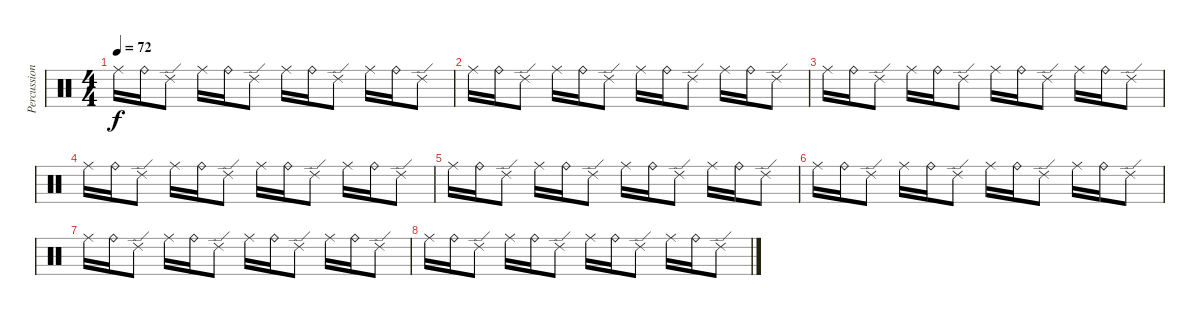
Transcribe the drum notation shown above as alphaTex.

\track ("Percussions" "Percussion") {instrument percussion}
\staff {score}
\articulation defaults
\ts (4 4)
\tempo 72
\clef neutral
\ks c "Ride (middle)".16{dy f} "Ride (bell)".16 "Ride (edge) 2".8 "Ride (middle)".16 "Ride (bell)".16 "Ride (edge) 2".8 "Ride (middle)".16 "Ride (bell)".16 "Ride (edge) 2".8 "Ride (middle)".16 "Ride (bell)".16 "Ride (edge) 2".8
|
"Ride (middle)".16 "Ride (bell)".16 "Ride (edge) 2".8 "Ride (middle)".16 "Ride (bell)".16 "Ride (edge) 2".8 "Ride (middle)".16 "Ride (bell)".16 "Ride (edge) 2".8 "Ride (middle)".16 "Ride (bell)".16 "Ride (edge) 2".8 |
"Ride (middle)".16 "Ride (bell)".16 "Ride (edge) 2".8 "Ride (middle)".16 "Ride (bell)".16 "Ride (edge) 2".8 "Ride (middle)".16 "Ride (bell)".16 "Ride (edge) 2".8 "Ride (middle)".16 "Ride (bell)".16 "Ride (edge) 2".8 |
"Ride (middle)".16 "Ride (bell)".16 "Ride (edge) 2".8 "Ride (middle)".16 "Ride (bell)".16 "Ride (edge) 2".8 "Ride (middle)".16 "Ride (bell)".16 "Ride (edge) 2".8 "Ride (middle)".16 "Ride (bell)".16 "Ride (edge) 2".8 |
"Ride (middle)".16 "Ride (bell)".16 "Ride (edge) 2".8 "Ride (middle)".16 "Ride (bell)".16 "Ride (edge) 2".8 "Ride (middle)".16 "Ride (bell)".16 "Ride (edge) 2".8 "Ride (middle)".16 "Ride (bell)".16 "Ride (edge) 2".8 |
"Ride (middle)".16 "Ride (bell)".16 "Ride (edge) 2".8 "Ride (middle)".16 "Ride (bell)".16 "Ride (edge) 2".8 "Ride (middle)".16 "Ride (bell)".16 "Ride (edge) 2".8 "Ride (middle)".16 "Ride (bell)".16 "Ride (edge) 2".8 |
"Ride (middle)".16 "Ride (bell)".16 "Ride (edge) 2".8 "Ride (middle)".16 "Ride (bell)".16 "Ride (edge) 2".8 "Ride (middle)".16 "Ride (bell)".16 "Ride (edge) 2".8 "Ride (middle)".16 "Ride (bell)".16 "Ride (edge) 2".8 |
"Ride (middle)".16 "Ride (bell)".16 "Ride (edge) 2".8 "Ride (middle)".16 "Ride (bell)".16 "Ride (edge) 2".8 "Ride (middle)".16 "Ride (bell)".16 "Ride (edge) 2".8 "Ride (middle)".16 "Ride (bell)".16 "Ride (edge) 2".8
